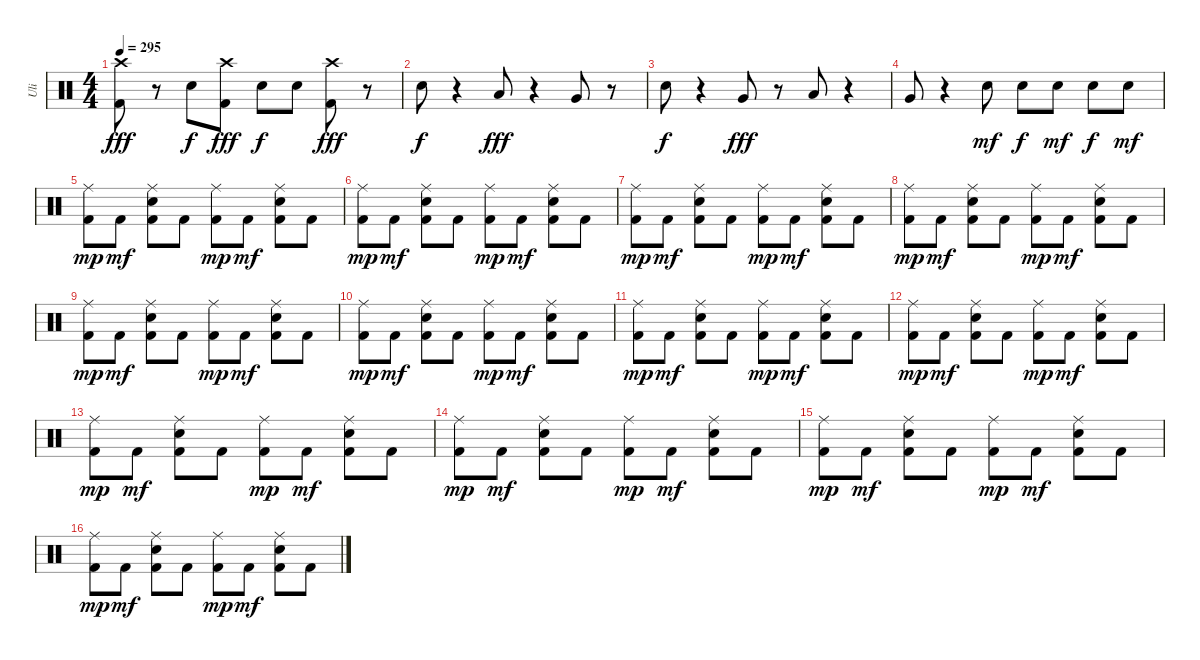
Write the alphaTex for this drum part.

\track ("Uli" "Uli") {instrument percussion}
\staff {score}
\articulation defaults
\ts (4 4)
\tempo 295
\clef neutral
\ks c
("Crash high (hit)" "Kick (hit) 2").8{dy fff} r.8 "Electric Snare (hit)".8{dy f} ("Crash high (hit)" "Kick (hit) 2").8{dy fff} "Electric Snare (hit)".8{dy f} "Electric Snare (hit)".8 ("Crash high (hit)" "Kick (hit) 2").8{dy fff} r.8 |
"Electric Snare (hit)".8{dy f} r.4 "Low Tom (hit)".8{dy fff} r.4 "Very Low Tom (hit)".8 r.8 |
"Electric Snare (hit)".8{dy f} r.4 "Very Low Tom (hit)".8{dy fff} r.8 "Low Floor Tom (hit)".8 r.4 |
"Very Low Tom (hit)".8 r.4 "Electric Snare (hit)".8{dy mf} "Electric Snare (hit)".8{dy f} "Electric Snare (hit)".8{dy mf} "Electric Snare (hit)".8{dy f} "Electric Snare (hit)".8{dy mf} |
("Ride (middle)" "Kick (hit) 2").8{dy mp} "Kick (hit) 2".8{dy mf} ("Ride (middle)" "Electric Snare (hit)" "Kick (hit) 2").8 "Kick (hit) 2".8 ("Ride (middle)" "Kick (hit) 2").8{dy mp} "Kick (hit) 2".8{dy mf} ("Ride (middle)" "Electric Snare (hit)" "Kick (hit) 2").8 "Kick (hit) 2".8 |
("Ride (middle)" "Kick (hit) 2").8{dy mp} "Kick (hit) 2".8{dy mf} ("Ride (middle)" "Electric Snare (hit)" "Kick (hit) 2").8 "Kick (hit) 2".8 ("Ride (middle)" "Kick (hit) 2").8{dy mp} "Kick (hit) 2".8{dy mf} ("Ride (middle)" "Electric Snare (hit)" "Kick (hit) 2").8 "Kick (hit) 2".8 |
("Ride (middle)" "Kick (hit) 2").8{dy mp} "Kick (hit) 2".8{dy mf} ("Ride (middle)" "Electric Snare (hit)" "Kick (hit) 2").8 "Kick (hit) 2".8 ("Ride (middle)" "Kick (hit) 2").8{dy mp} "Kick (hit) 2".8{dy mf} ("Ride (middle)" "Electric Snare (hit)" "Kick (hit) 2").8 "Kick (hit) 2".8 |
("Ride (middle)" "Kick (hit) 2").8{dy mp} "Kick (hit) 2".8{dy mf} ("Ride (middle)" "Electric Snare (hit)" "Kick (hit) 2").8 "Kick (hit) 2".8 ("Ride (middle)" "Kick (hit) 2").8{dy mp} "Kick (hit) 2".8{dy mf} ("Ride (middle)" "Electric Snare (hit)" "Kick (hit) 2").8 "Kick (hit) 2".8 |
("Ride (middle)" "Kick (hit) 2").8{dy mp} "Kick (hit) 2".8{dy mf} ("Ride (middle)" "Electric Snare (hit)" "Kick (hit) 2").8 "Kick (hit) 2".8 ("Ride (middle)" "Kick (hit) 2").8{dy mp} "Kick (hit) 2".8{dy mf} ("Ride (middle)" "Electric Snare (hit)" "Kick (hit) 2").8 "Kick (hit) 2".8 |
("Ride (middle)" "Kick (hit) 2").8{dy mp} "Kick (hit) 2".8{dy mf} ("Ride (middle)" "Electric Snare (hit)" "Kick (hit) 2").8 "Kick (hit) 2".8 ("Ride (middle)" "Kick (hit) 2").8{dy mp} "Kick (hit) 2".8{dy mf} ("Ride (middle)" "Electric Snare (hit)" "Kick (hit) 2").8 "Kick (hit) 2".8 |
("Ride (middle)" "Kick (hit) 2").8{dy mp} "Kick (hit) 2".8{dy mf} ("Ride (middle)" "Electric Snare (hit)" "Kick (hit) 2").8 "Kick (hit) 2".8 ("Ride (middle)" "Kick (hit) 2").8{dy mp} "Kick (hit) 2".8{dy mf} ("Ride (middle)" "Electric Snare (hit)" "Kick (hit) 2").8 "Kick (hit) 2".8 |
("Ride (middle)" "Kick (hit) 2").8{dy mp} "Kick (hit) 2".8{dy mf} ("Ride (middle)" "Electric Snare (hit)" "Kick (hit) 2").8 "Kick (hit) 2".8 ("Ride (middle)" "Kick (hit) 2").8{dy mp} "Kick (hit) 2".8{dy mf} ("Ride (middle)" "Electric Snare (hit)" "Kick (hit) 2").8 "Kick (hit) 2".8 |
("Ride (middle)" "Kick (hit) 2").8{dy mp} "Kick (hit) 2".8{dy mf} ("Ride (middle)" "Electric Snare (hit)" "Kick (hit) 2").8 "Kick (hit) 2".8 ("Ride (middle)" "Kick (hit) 2").8{dy mp} "Kick (hit) 2".8{dy mf} ("Ride (middle)" "Electric Snare (hit)" "Kick (hit) 2").8 "Kick (hit) 2".8 |
("Ride (middle)" "Kick (hit) 2").8{dy mp} "Kick (hit) 2".8{dy mf} ("Ride (middle)" "Electric Snare (hit)" "Kick (hit) 2").8 "Kick (hit) 2".8 ("Ride (middle)" "Kick (hit) 2").8{dy mp} "Kick (hit) 2".8{dy mf} ("Ride (middle)" "Electric Snare (hit)" "Kick (hit) 2").8 "Kick (hit) 2".8 |
("Ride (middle)" "Kick (hit) 2").8{dy mp} "Kick (hit) 2".8{dy mf} ("Ride (middle)" "Electric Snare (hit)" "Kick (hit) 2").8 "Kick (hit) 2".8 ("Ride (middle)" "Kick (hit) 2").8{dy mp} "Kick (hit) 2".8{dy mf} ("Ride (middle)" "Electric Snare (hit)" "Kick (hit) 2").8 "Kick (hit) 2".8 |
("Ride (middle)" "Kick (hit) 2").8{dy mp} "Kick (hit) 2".8{dy mf} ("Ride (middle)" "Electric Snare (hit)" "Kick (hit) 2").8 "Kick (hit) 2".8 ("Ride (middle)" "Kick (hit) 2").8{dy mp} "Kick (hit) 2".8{dy mf} ("Ride (middle)" "Electric Snare (hit)" "Kick (hit) 2").8 "Kick (hit) 2".8
